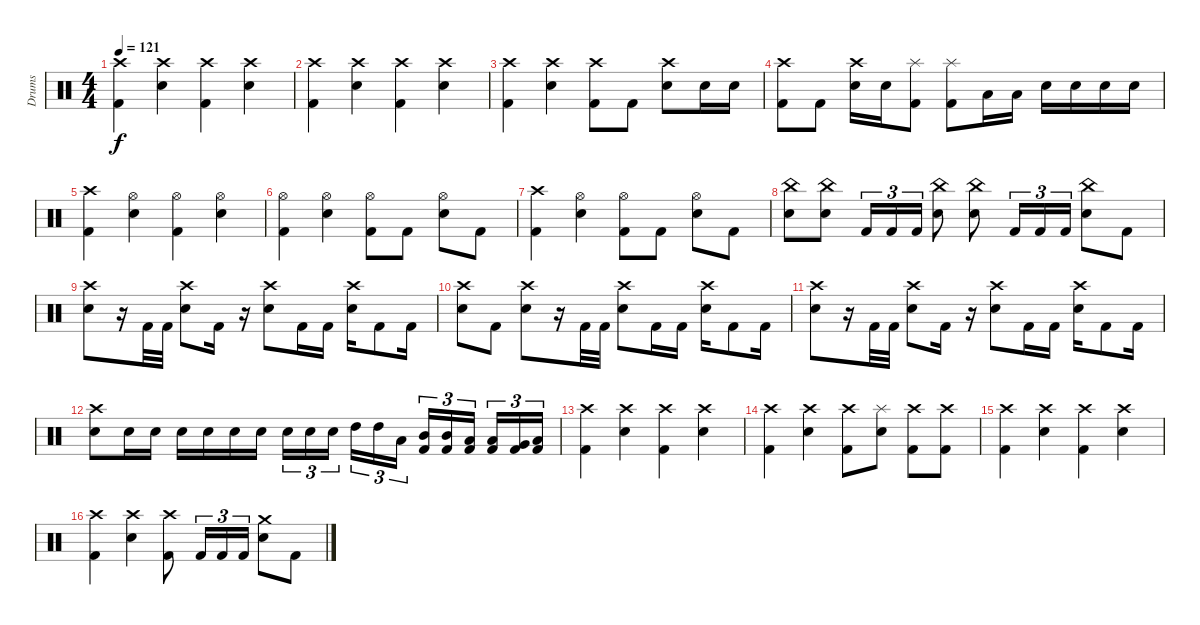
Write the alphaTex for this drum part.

\track ("Drums" "Drums") {instrument percussion}
\staff {score}
\articulation defaults
\ts (4 4)
\tempo 121
\clef neutral
\ks c
("Crash high (hit)" "Kick (hit) 2").4{dy f} ("Crash high (hit)" "Electric Snare (hit)").4 ("Crash high (hit)" "Kick (hit) 2").4 ("Crash high (hit)" "Electric Snare (hit)").4 |
("Crash high (hit)" "Kick (hit) 2").4 ("Crash high (hit)" "Electric Snare (hit)").4 ("Crash high (hit)" "Kick (hit) 2").4 ("Crash high (hit)" "Electric Snare (hit)").4 |
("Crash high (hit)" "Kick (hit) 2").4 ("Crash high (hit)" "Electric Snare (hit)").4 ("Crash high (hit)" "Kick (hit) 2").8 "Kick (hit) 2".8 ("Crash high (hit)" "Electric Snare (hit)").8 "Electric Snare (hit)".16 "Electric Snare (hit)".16 |
("Crash high (hit)" "Kick (hit) 2").8 "Kick (hit) 2".8 ("Crash high (hit)" "Electric Snare (hit)").16 "Electric Snare (hit)".16 ("Splash (hit)" "Kick (hit) 2").8 ("Splash (hit)" "Kick (hit) 2").8 "Low Tom (hit)".16 "Low Tom (hit)".16 "Electric Snare (hit)".16 "Electric Snare (hit)".16 "Electric Snare (hit)".16 "Electric Snare (hit)".16 |
("Crash high (hit)" "Kick (hit) 2").4 ("Hi-Hat (open)" "Electric Snare (hit)").4 ("Hi-Hat (open)" "Kick (hit) 2").4 ("Hi-Hat (open)" "Electric Snare (hit)").4 |
("Hi-Hat (open)" "Kick (hit) 2").4 ("Hi-Hat (open)" "Electric Snare (hit)").4 ("Hi-Hat (open)" "Kick (hit) 2").8 "Kick (hit) 2".8 ("Hi-Hat (open)" "Electric Snare (hit)").8 "Kick (hit) 2".8 |
("Crash high (hit)" "Kick (hit) 2").4 ("Hi-Hat (open)" "Electric Snare (hit)").4 ("Hi-Hat (open)" "Kick (hit) 2").8 "Kick (hit) 2".8 ("Hi-Hat (open)" "Electric Snare (hit)").8 "Kick (hit) 2".8 |
("China (hit)" "Electric Snare (hit)").8 ("China (hit)" "Electric Snare (hit)").8 "Kick (hit) 2".16{tu (3 2)} "Kick (hit) 2".16{tu (3 2)} "Kick (hit) 2".16{tu (3 2)} ("China (hit)" "Electric Snare (hit)").8 ("China (hit)" "Electric Snare (hit)").8 "Kick (hit) 2".16{tu (3 2)} "Kick (hit) 2".16{tu (3 2)} "Kick (hit) 2".16{tu (3 2)} ("China (hit)" "Electric Snare (hit)").8 "Kick (hit) 2".8 |
("Crash high (hit)" "Electric Snare (hit)").8 r.16 "Kick (hit) 2".32 "Kick (hit) 2".32 ("Crash high (hit)" "Electric Snare (hit)").8 "Kick (hit) 2".16 r.16 ("Crash high (hit)" "Electric Snare (hit)").8 "Kick (hit) 2".16 "Kick (hit) 2".16 ("Crash high (hit)" "Electric Snare (hit)").16 "Kick (hit) 2".8 "Kick (hit) 2".16 |
("Crash high (hit)" "Electric Snare (hit)").8 "Kick (hit) 2".8 ("Crash high (hit)" "Electric Snare (hit)").8 r.16 "Kick (hit) 2".32 "Kick (hit) 2".32 ("Crash high (hit)" "Electric Snare (hit)").8 "Kick (hit) 2".16 "Kick (hit) 2".16 ("Crash high (hit)" "Electric Snare (hit)").16 "Kick (hit) 2".8 "Kick (hit) 2".16 |
("Crash high (hit)" "Electric Snare (hit)").8 r.16 "Kick (hit) 2".32 "Kick (hit) 2".32 ("Crash high (hit)" "Electric Snare (hit)").8 "Kick (hit) 2".16 r.16 ("Crash high (hit)" "Electric Snare (hit)").8 "Kick (hit) 2".16 "Kick (hit) 2".16 ("Crash high (hit)" "Electric Snare (hit)").16 "Kick (hit) 2".8 "Kick (hit) 2".16 |
("Crash high (hit)" "Electric Snare (hit)").8 "Electric Snare (hit)".16 "Electric Snare (hit)".16 "Electric Snare (hit)".16 "Electric Snare (hit)".16 "Electric Snare (hit)".16 "Electric Snare (hit)".16 "Electric Snare (hit)".16{tu (3 2)} "Electric Snare (hit)".16{tu (3 2)} "Electric Snare (hit)".16{tu (3 2)} "High Tom (hit)".16{tu (3 2)} "High Tom (hit)".16{tu (3 2)} "Low Tom (hit)".16{tu (3 2)} ("Mid Tom (hit)" "Kick (hit) 2").16{tu (3 2)} ("Mid Tom (hit)" "Kick (hit) 2").16{tu (3 2)} ("Low Tom (hit)" "Kick (hit) 2").16{tu (3 2)} ("Low Tom (hit)" "Kick (hit) 2").16{tu (3 2)} ("Very Low Tom (hit)" "Kick (hit) 2").16{tu (3 2)} ("Low Floor Tom (hit)" "Kick (hit) 2").16{tu (3 2)} |
("Crash high (hit)" "Kick (hit) 2").4 ("Crash high (hit)" "Electric Snare (hit)").4 ("Crash high (hit)" "Kick (hit) 2").4 ("Crash high (hit)" "Electric Snare (hit)").4 |
("Crash high (hit)" "Kick (hit) 2").4 ("Crash high (hit)" "Electric Snare (hit)").4 ("Crash high (hit)" "Kick (hit) 2").8 ("Splash (hit)" "Electric Snare (hit)").8 ("Crash high (hit)" "Kick (hit) 2").8 ("Crash high (hit)" "Kick (hit) 2").8 |
("Crash high (hit)" "Kick (hit) 2").4 ("Crash high (hit)" "Electric Snare (hit)").4 ("Crash high (hit)" "Kick (hit) 2").4 ("Crash high (hit)" "Electric Snare (hit)").4 |
("Crash high (hit)" "Kick (hit) 2").4 ("Crash high (hit)" "Electric Snare (hit)").4 ("Crash high (hit)" "Kick (hit) 2").8 "Kick (hit) 2".16{tu (3 2)} "Kick (hit) 2".16{tu (3 2)} "Kick (hit) 2".16{tu (3 2)} ("Crash medium (hit)" "Electric Snare (hit)").8 "Kick (hit) 2".8
